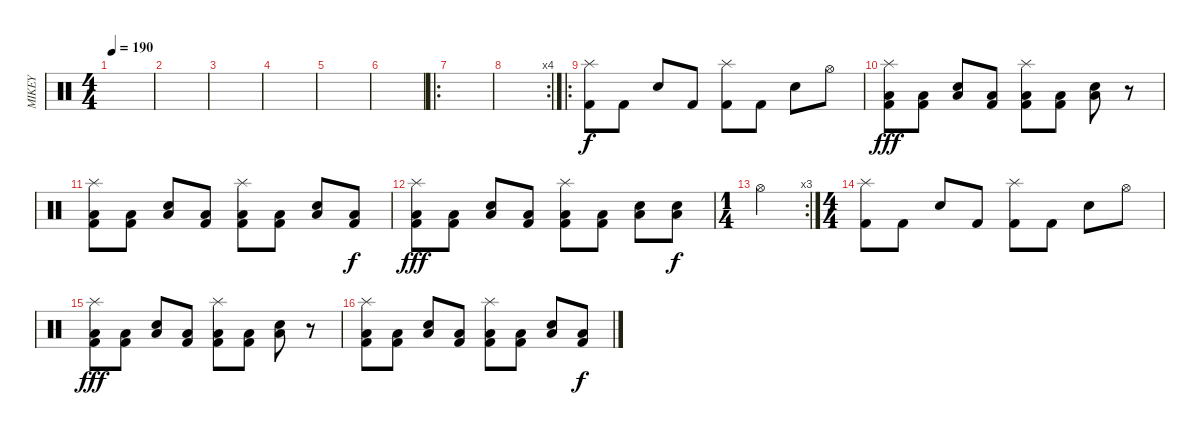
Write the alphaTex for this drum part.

\track ("MIKEY" "MIKEY") {instrument percussion}
\staff {score}
\articulation defaults
\ts (4 4)
\tempo 190
\clef neutral
\ks c
|
|
|
|
|
|
\ro
|
\rc 4
|
\ro
("Splash (hit)" "Kick (hit) 2").8{dy f} "Kick (hit) 2".8 "Snare (hit) 2".8 "Kick (hit) 2".8 ("Splash (hit)" "Kick (hit) 2").8 "Kick (hit) 2".8 "Snare (hit) 2".8 "Hi-Hat (open)".8 |
("Low Floor Tom (hit)" "Splash (hit)" "Kick (hit) 2").8{dy fff} ("Low Floor Tom (hit)" "Kick (hit) 2").8 ("Low Floor Tom (hit)" "Snare (hit) 2").8 ("Low Floor Tom (hit)" "Kick (hit) 2").8 ("Low Floor Tom (hit)" "Splash (hit)" "Kick (hit) 2").8 ("Low Floor Tom (hit)" "Kick (hit) 2").8 ("Low Floor Tom (hit)" "Snare (hit) 2").8 r.8 |
("Low Floor Tom (hit)" "Splash (hit)" "Kick (hit) 2").8 ("Low Floor Tom (hit)" "Kick (hit) 2").8 ("Low Floor Tom (hit)" "Snare (hit) 2").8 ("Low Floor Tom (hit)" "Kick (hit) 2").8 ("Low Floor Tom (hit)" "Splash (hit)" "Kick (hit) 2").8 ("Low Floor Tom (hit)" "Kick (hit) 2").8 ("Low Floor Tom (hit)" "Snare (hit) 2").8 ("Low Floor Tom (hit)" "Kick (hit) 2").8{dy f} |
("Low Floor Tom (hit)" "Splash (hit)" "Kick (hit) 2").8{dy fff} ("Low Floor Tom (hit)" "Kick (hit) 2").8 ("Low Floor Tom (hit)" "Snare (hit) 2").8 ("Low Floor Tom (hit)" "Kick (hit) 2").8 ("Low Floor Tom (hit)" "Splash (hit)" "Kick (hit) 2").8 ("Low Floor Tom (hit)" "Kick (hit) 2").8 ("Low Floor Tom (hit)" "Snare (hit) 2").8 ("Low Floor Tom (hit)" "Snare (hit) 2").8{dy f} |
\rc 3
\ts (1 4)
"Hi-Hat (open)".4 |
\ts (4 4)
("Splash (hit)" "Kick (hit) 2").8 "Kick (hit) 2".8 "Snare (hit) 2".8 "Kick (hit) 2".8 ("Splash (hit)" "Kick (hit) 2").8 "Kick (hit) 2".8 "Snare (hit) 2".8 "Hi-Hat (open)".8 |
("Low Floor Tom (hit)" "Splash (hit)" "Kick (hit) 2").8{dy fff} ("Low Floor Tom (hit)" "Kick (hit) 2").8 ("Low Floor Tom (hit)" "Snare (hit) 2").8 ("Low Floor Tom (hit)" "Kick (hit) 2").8 ("Low Floor Tom (hit)" "Splash (hit)" "Kick (hit) 2").8 ("Low Floor Tom (hit)" "Kick (hit) 2").8 ("Low Floor Tom (hit)" "Snare (hit) 2").8 r.8 |
("Low Floor Tom (hit)" "Splash (hit)" "Kick (hit) 2").8 ("Low Floor Tom (hit)" "Kick (hit) 2").8 ("Low Floor Tom (hit)" "Snare (hit) 2").8 ("Low Floor Tom (hit)" "Kick (hit) 2").8 ("Low Floor Tom (hit)" "Splash (hit)" "Kick (hit) 2").8 ("Low Floor Tom (hit)" "Kick (hit) 2").8 ("Low Floor Tom (hit)" "Snare (hit) 2").8 ("Low Floor Tom (hit)" "Kick (hit) 2").8{dy f}
